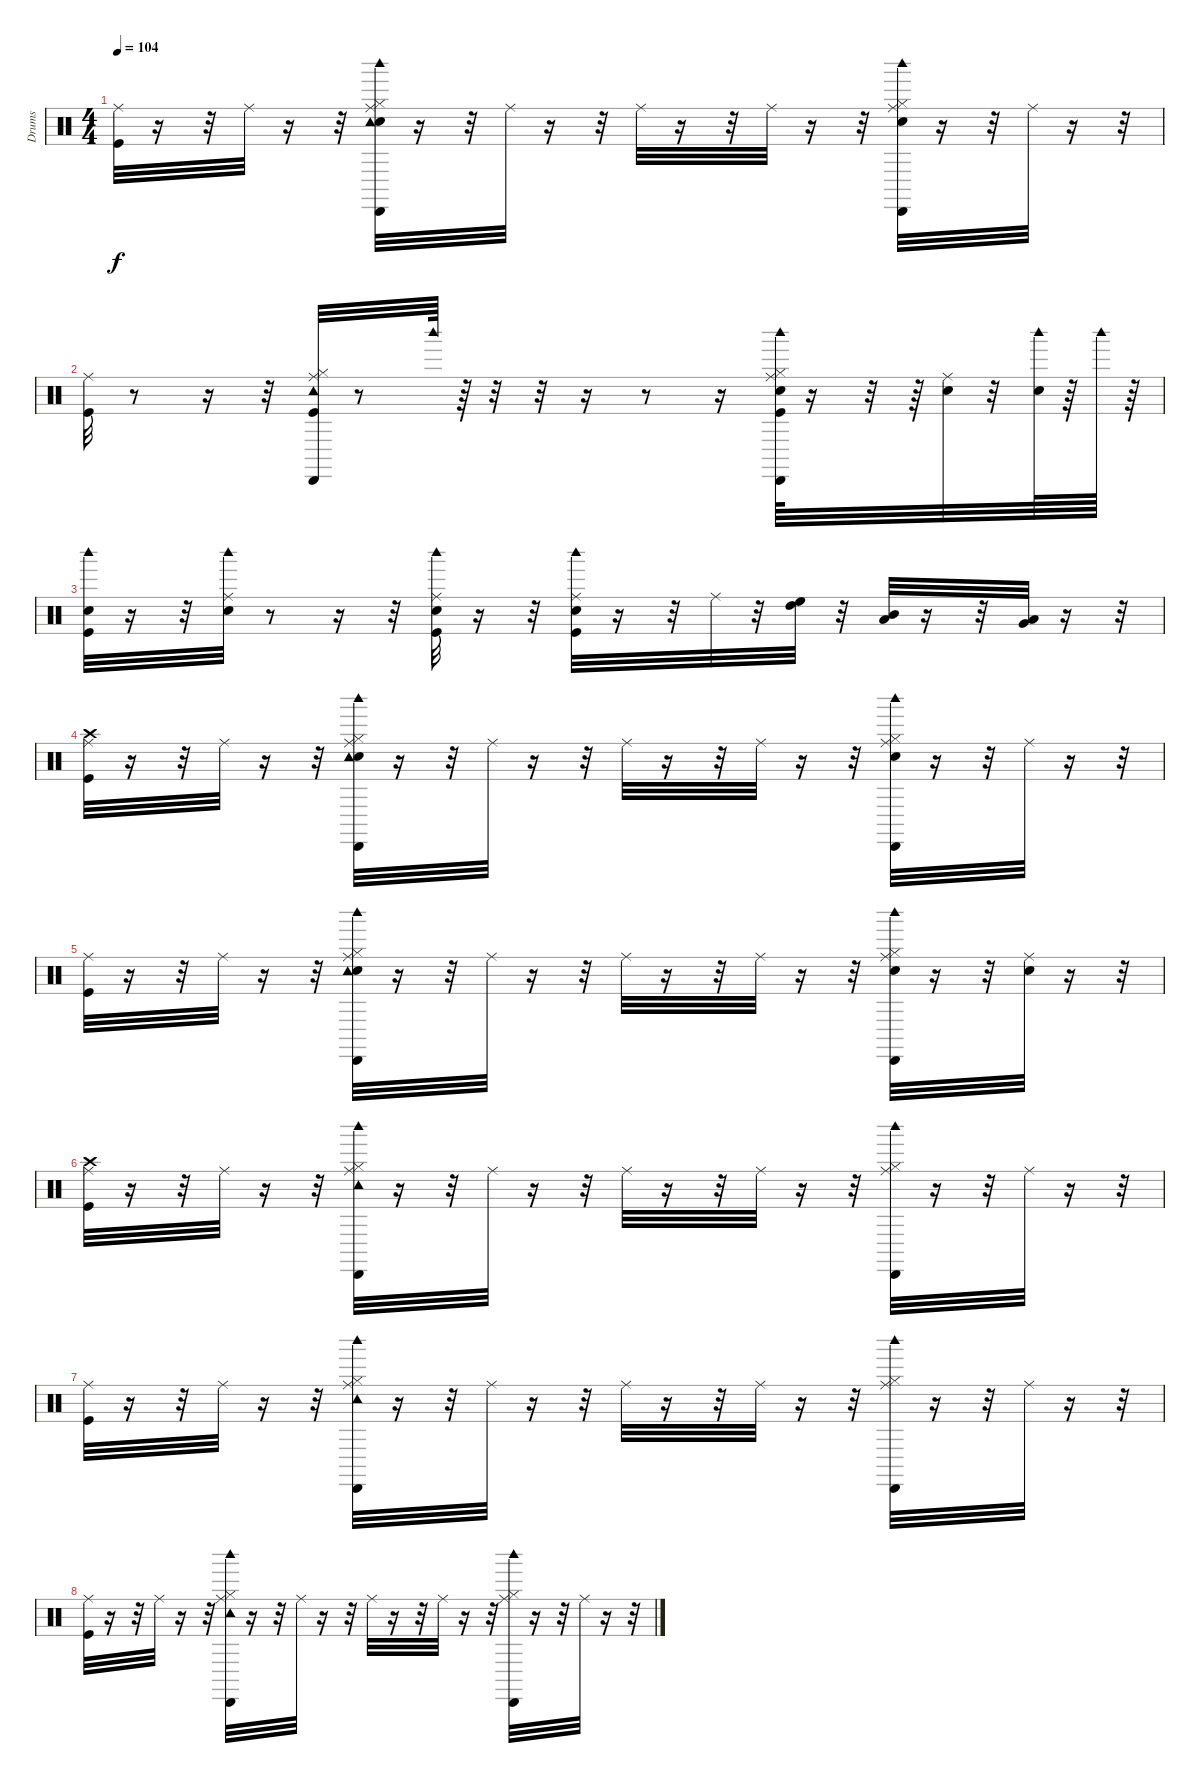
\track ("Drums" "Drums") {instrument percussion}
\staff {score}
\articulation defaults
\ts (4 4)
\tempo 104
\clef neutral
\ks c
("Kick (hit)" "Ride (middle)").32{dy f} r.16 r.32 "Ride (middle)".32 r.16 r.32 ("Snare (hit) 2" "Hi-Hat (closed)" "Ride (middle)" "Tambourine (hit)" "Cabasa (hit)" "Woodblock high (hit)").32 r.16 r.32 "Ride (middle)".32 r.16 r.32 "Ride (middle)".32 r.16 r.32 "Ride (middle)".32 r.16 r.32 ("Snare (hit) 2" "Hi-Hat (closed)" "Ride (middle)" "Cabasa (hit)" "Woodblock high (hit)").32 r.16 r.32 "Ride (middle)".32 r.16 r.32 |
("Kick (hit)" "Ride (middle)").32 r.8 r.16 r.32 ("Kick (hit)" "Hi-Hat (closed)" "Ride (middle)" "Tambourine (hit)" "Cabasa (hit)").32 r.8 "Woodblock high (hit)".64 r.64 r.32 r.32 r.16 r.8 r.16 ("Kick (hit)" "Snare (hit) 2" "Hi-Hat (closed)" "Ride (middle)" "Cabasa (hit)" "Woodblock high (hit)").64 r.16 r.32 r.64 ("Snare (hit) 2" "Ride (middle)").32 r.32 ("Snare (hit) 2" "Woodblock high (hit)").64 r.64 "Woodblock high (hit)".64 r.64 |
("Kick (hit)" "Snare (hit) 2" "Woodblock high (hit)").32 r.16 r.32 ("Snare (hit) 2" "Ride (middle)" "Woodblock high (hit)").32 r.8 r.16 r.32 ("Kick (hit)" "Snare (hit) 2" "Ride (middle)" "Woodblock high (hit)").32 r.16 r.32 ("Kick (hit)" "Snare (hit) 2" "Ride (middle)" "Woodblock high (hit)").32 r.16 r.32 "Ride (middle)".32 r.32 ("High Tom (hit)" "High Floor Tom (hit)").32 r.32 ("Low Tom (hit)" "Mid Tom (hit)").32 r.16 r.32 ("Low Floor Tom (hit)" "Very Low Tom (hit)").32 r.16 r.32 |
("Kick (hit)" "Crash high (hit)" "Ride (middle)").32 r.16 r.32 "Ride (middle)".32 r.16 r.32 ("Snare (hit) 2" "Hi-Hat (closed)" "Ride (middle)" "Tambourine (hit)" "Cabasa (hit)" "Woodblock high (hit)").32 r.16 r.32 "Ride (middle)".32 r.16 r.32 "Ride (middle)".32 r.16 r.32 "Ride (middle)".32 r.16 r.32 ("Snare (hit) 2" "Hi-Hat (closed)" "Ride (middle)" "Cabasa (hit)" "Woodblock high (hit)").32 r.16 r.32 "Ride (middle)".32 r.16 r.32 |
("Kick (hit)" "Ride (middle)").32 r.16 r.32 "Ride (middle)".32 r.16 r.32 ("Snare (hit) 2" "Hi-Hat (closed)" "Ride (middle)" "Tambourine (hit)" "Cabasa (hit)" "Woodblock high (hit)").32 r.16 r.32 "Ride (middle)".32 r.16 r.32 "Ride (middle)".32 r.16 r.32 "Ride (middle)".32 r.16 r.32 ("Snare (hit) 2" "Hi-Hat (closed)" "Ride (middle)" "Cabasa (hit)" "Woodblock high (hit)").32 r.16 r.32 ("Snare (hit) 2" "Ride (middle)").32 r.16 r.32 |
("Kick (hit)" "Crash high (hit)" "Ride (middle)").32 r.16 r.32 "Ride (middle)".32 r.16 r.32 ("Hi-Hat (closed)" "Ride (middle)" "Tambourine (hit)" "Cabasa (hit)" "Woodblock high (hit)").32 r.16 r.32 "Ride (middle)".32 r.16 r.32 "Ride (middle)".32 r.16 r.32 "Ride (middle)".32 r.16 r.32 ("Hi-Hat (closed)" "Ride (middle)" "Cabasa (hit)" "Woodblock high (hit)").32 r.16 r.32 "Ride (middle)".32 r.16 r.32 |
("Kick (hit)" "Ride (middle)").32 r.16 r.32 "Ride (middle)".32 r.16 r.32 ("Hi-Hat (closed)" "Ride (middle)" "Tambourine (hit)" "Cabasa (hit)" "Woodblock high (hit)").32 r.16 r.32 "Ride (middle)".32 r.16 r.32 "Ride (middle)".32 r.16 r.32 "Ride (middle)".32 r.16 r.32 ("Hi-Hat (closed)" "Ride (middle)" "Cabasa (hit)" "Woodblock high (hit)").32 r.16 r.32 "Ride (middle)".32 r.16 r.32 |
("Kick (hit)" "Ride (middle)").32 r.16 r.32 "Ride (middle)".32 r.16 r.32 ("Hi-Hat (closed)" "Ride (middle)" "Tambourine (hit)" "Cabasa (hit)" "Woodblock high (hit)").32 r.16 r.32 "Ride (middle)".32 r.16 r.32 "Ride (middle)".32 r.16 r.32 "Ride (middle)".32 r.16 r.32 ("Hi-Hat (closed)" "Ride (middle)" "Cabasa (hit)" "Woodblock high (hit)").32 r.16 r.32 "Ride (middle)".32 r.16 r.32
